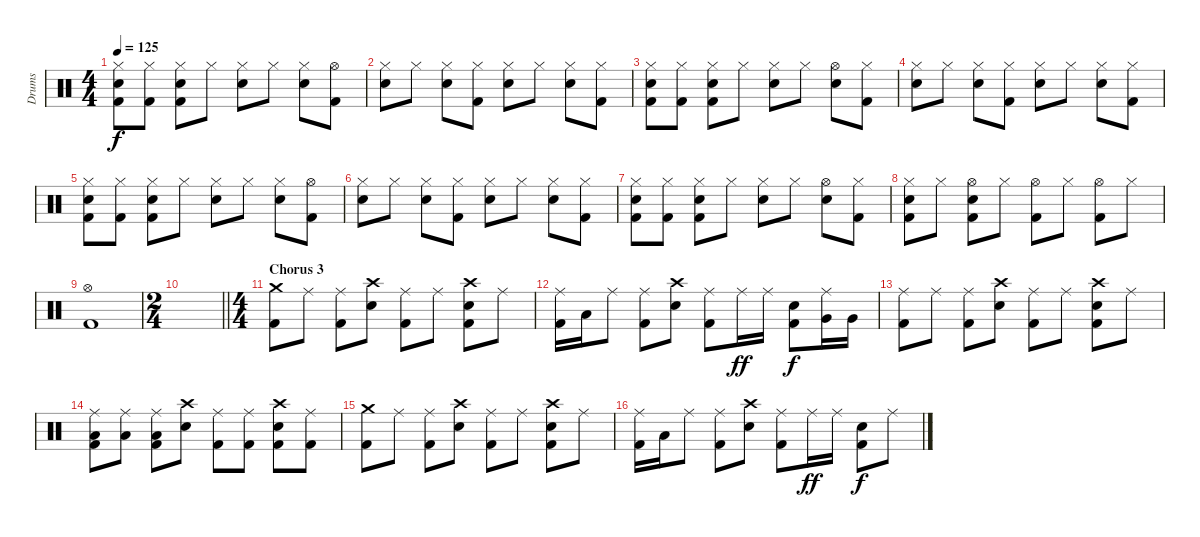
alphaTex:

\track ("Drums" "Drums") {instrument percussion}
\staff {score}
\articulation defaults
\ts (4 4)
\tempo 125
\clef neutral
\ks c
("Hi-Hat (closed)" "Electric Snare (hit)" "Kick (hit) 2").8{dy f} ("Hi-Hat (closed)" "Kick (hit) 2").8 ("Hi-Hat (closed)" "Electric Snare (hit)" "Kick (hit) 2").8 "Hi-Hat (closed)".8 ("Hi-Hat (closed)" "Electric Snare (hit)").8 "Hi-Hat (closed)".8 ("Hi-Hat (closed)" "Electric Snare (hit)").8 ("Hi-Hat (open)" "Kick (hit) 2").8 |
("Hi-Hat (closed)" "Electric Snare (hit)").8 "Hi-Hat (closed)".8 ("Hi-Hat (closed)" "Electric Snare (hit)").8 ("Hi-Hat (closed)" "Kick (hit) 2").8 ("Hi-Hat (closed)" "Electric Snare (hit)").8 "Hi-Hat (closed)".8 ("Hi-Hat (closed)" "Electric Snare (hit)").8 ("Hi-Hat (closed)" "Kick (hit) 2").8 |
("Hi-Hat (closed)" "Electric Snare (hit)" "Kick (hit) 2").8 ("Hi-Hat (closed)" "Kick (hit) 2").8 ("Hi-Hat (closed)" "Electric Snare (hit)" "Kick (hit) 2").8 "Hi-Hat (closed)".8 ("Hi-Hat (closed)" "Electric Snare (hit)").8 "Hi-Hat (closed)".8 ("Hi-Hat (open)" "Electric Snare (hit)").8 ("Hi-Hat (closed)" "Kick (hit) 2").8 |
("Hi-Hat (closed)" "Electric Snare (hit)").8 "Hi-Hat (closed)".8 ("Hi-Hat (closed)" "Electric Snare (hit)").8 ("Hi-Hat (closed)" "Kick (hit) 2").8 ("Hi-Hat (closed)" "Electric Snare (hit)").8 "Hi-Hat (closed)".8 ("Hi-Hat (closed)" "Electric Snare (hit)").8 ("Hi-Hat (closed)" "Kick (hit) 2").8 |
("Hi-Hat (closed)" "Electric Snare (hit)" "Kick (hit) 2").8 ("Hi-Hat (closed)" "Kick (hit) 2").8 ("Hi-Hat (closed)" "Electric Snare (hit)" "Kick (hit) 2").8 "Hi-Hat (closed)".8 ("Hi-Hat (closed)" "Electric Snare (hit)").8 "Hi-Hat (closed)".8 ("Hi-Hat (closed)" "Electric Snare (hit)").8 ("Hi-Hat (open)" "Kick (hit) 2").8 |
("Hi-Hat (closed)" "Electric Snare (hit)").8 "Hi-Hat (closed)".8 ("Hi-Hat (closed)" "Electric Snare (hit)").8 ("Hi-Hat (closed)" "Kick (hit) 2").8 ("Hi-Hat (closed)" "Electric Snare (hit)").8 "Hi-Hat (closed)".8 ("Hi-Hat (closed)" "Electric Snare (hit)").8 ("Hi-Hat (closed)" "Kick (hit) 2").8 |
("Hi-Hat (closed)" "Electric Snare (hit)" "Kick (hit) 2").8 ("Hi-Hat (closed)" "Kick (hit) 2").8 ("Hi-Hat (closed)" "Electric Snare (hit)" "Kick (hit) 2").8 "Hi-Hat (closed)".8 ("Hi-Hat (closed)" "Electric Snare (hit)").8 "Hi-Hat (closed)".8 ("Hi-Hat (open)" "Electric Snare (hit)").8 ("Hi-Hat (closed)" "Kick (hit) 2").8 |
("Hi-Hat (closed)" "Electric Snare (hit)" "Kick (hit) 2").8 "Hi-Hat (closed)".8 ("Hi-Hat (open)" "Electric Snare (hit)" "Kick (hit) 2").8 "Hi-Hat (closed)".8 ("Hi-Hat (open)" "Kick (hit) 2").8 "Hi-Hat (closed)".8 ("Hi-Hat (open)" "Kick (hit) 2").8 "Hi-Hat (closed)".8 |
("Hi-Hat (open)" "Kick (hit) 2").1 |
\ts (2 4)
\barLineRight lightlight
|
\ts (4 4)
\section ("" "Chorus 3")
("Crash medium (hit)" "Kick (hit) 2").8 "Ride (middle)".8 ("Ride (middle)" "Kick (hit) 2").8 ("Crash high (hit)" "Electric Snare (hit)").8 ("Ride (middle)" "Kick (hit) 2").8 "Ride (middle)".8 ("Crash high (hit)" "Electric Snare (hit)" "Kick (hit) 2").8 "Ride (middle)".8 |
("Ride (middle)" "Kick (hit) 2").16 "Low Tom (hit)".16 "Ride (middle)".8 ("Ride (middle)" "Kick (hit) 2").8 ("Crash high (hit)" "Electric Snare (hit)").8 ("Ride (middle)" "Kick (hit) 2").8 "Ride (middle)".16{dy ff} "Ride (middle)".16 ("Electric Snare (hit)" "Kick (hit) 2").8{dy f} ("Ride (middle)" "Very Low Tom (hit)").16 "Very Low Tom (hit)".16 |
("Ride (middle)" "Kick (hit) 2").8 "Ride (middle)".8 ("Ride (middle)" "Kick (hit) 2").8 ("Crash high (hit)" "Electric Snare (hit)").8 ("Ride (middle)" "Kick (hit) 2").8 "Ride (middle)".8 ("Crash high (hit)" "Electric Snare (hit)" "Kick (hit) 2").8 "Ride (middle)".8 |
("Ride (middle)" "Low Tom (hit)" "Kick (hit) 2").8 ("Ride (middle)" "Low Tom (hit)").8 ("Ride (middle)" "Low Tom (hit)" "Kick (hit) 2").8 ("Crash high (hit)" "Electric Snare (hit)").8 ("Ride (middle)" "Kick (hit) 2").8 ("Ride (middle)" "Kick (hit) 2").8 ("Crash high (hit)" "Electric Snare (hit)" "Kick (hit) 2").8 ("Ride (middle)" "Kick (hit) 2").8 |
("Crash medium (hit)" "Kick (hit) 2").8 "Ride (middle)".8 ("Ride (middle)" "Kick (hit) 2").8 ("Crash high (hit)" "Electric Snare (hit)").8 ("Ride (middle)" "Kick (hit) 2").8 "Ride (middle)".8 ("Crash high (hit)" "Electric Snare (hit)" "Kick (hit) 2").8 "Ride (middle)".8 |
("Ride (middle)" "Kick (hit) 2").16 "Low Tom (hit)".16 "Ride (middle)".8 ("Ride (middle)" "Kick (hit) 2").8 ("Crash high (hit)" "Electric Snare (hit)").8 ("Ride (middle)" "Kick (hit) 2").8 "Ride (middle)".16{dy ff} "Ride (middle)".16 ("Electric Snare (hit)" "Kick (hit) 2").8{dy f} "Ride (middle)".8
